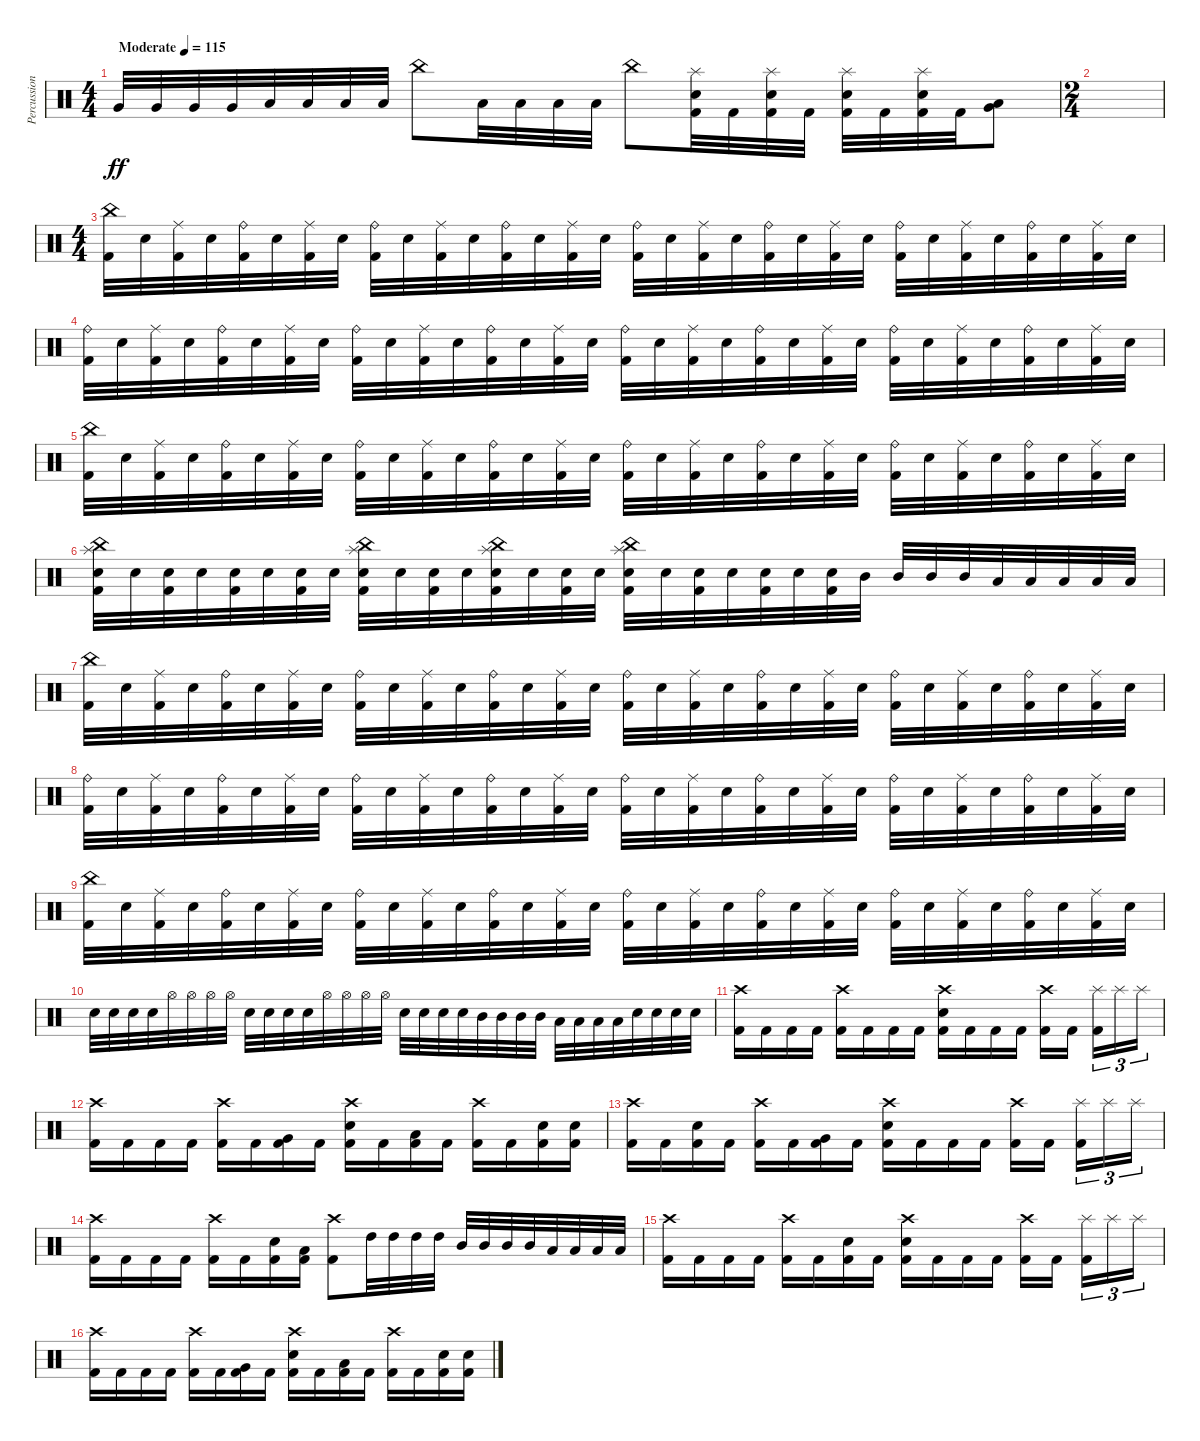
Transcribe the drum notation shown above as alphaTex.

\track ("Percussion" "Percussion") {instrument percussion}
\staff {score}
\articulation defaults
\ts (4 4)
\tempo (115 "Moderate")
\clef neutral
\ks c "Very Low Tom (hit)".32{dy ff} "Very Low Tom (hit)".32 "Very Low Tom (hit)".32 "Very Low Tom (hit)".32 "Low Floor Tom (hit)".32 "Low Floor Tom (hit)".32 "Low Floor Tom (hit)".32 "Low Floor Tom (hit)".32 "China (hit)".8 "Low Floor Tom (hit)".32 "Low Floor Tom (hit)".32 "Low Floor Tom (hit)".32 "Low Floor Tom (hit)".32 "China (hit)".8
("Splash (hit)" "Electric Snare (hit)" "Kick (hit) 2").32 "Kick (hit) 2".32 ("Splash (hit)" "Electric Snare (hit)" "Kick (hit) 2").32 "Kick (hit) 2".32 ("Splash (hit)" "Electric Snare (hit)" "Kick (hit) 2").32 "Kick (hit) 2".32 ("Splash (hit)" "Electric Snare (hit)" "Kick (hit) 2").32 "Kick (hit) 2".32 ("Low Floor Tom (hit)" "Very Low Tom (hit)").8 |
\ts (2 4)
|
\ts (4 4)
("China (hit)" "Kick (hit) 2").32 "Electric Snare (hit)".32 ("Ride (middle)" "Kick (hit) 2").32 "Electric Snare (hit)".32 ("Ride (bell)" "Kick (hit) 2").32 "Electric Snare (hit)".32 ("Ride (middle)" "Kick (hit) 2").32 "Electric Snare (hit)".32 ("Ride (bell)" "Kick (hit) 2").32 "Electric Snare (hit)".32 ("Ride (middle)" "Kick (hit) 2").32 "Electric Snare (hit)".32 ("Ride (bell)" "Kick (hit) 2").32 "Electric Snare (hit)".32 ("Ride (middle)" "Kick (hit) 2").32 "Electric Snare (hit)".32 ("Ride (bell)" "Kick (hit) 2").32 "Electric Snare (hit)".32 ("Ride (middle)" "Kick (hit) 2").32 "Electric Snare (hit)".32 ("Ride (bell)" "Kick (hit) 2").32 "Electric Snare (hit)".32 ("Ride (middle)" "Kick (hit) 2").32 "Electric Snare (hit)".32 ("Ride (bell)" "Kick (hit) 2").32 "Electric Snare (hit)".32 ("Ride (middle)" "Kick (hit) 2").32 "Electric Snare (hit)".32 ("Ride (bell)" "Kick (hit) 2").32 "Electric Snare (hit)".32 ("Ride (middle)" "Kick (hit) 2").32 "Electric Snare (hit)".32 |
("Ride (bell)" "Kick (hit) 2").32 "Electric Snare (hit)".32 ("Ride (middle)" "Kick (hit) 2").32 "Electric Snare (hit)".32 ("Ride (bell)" "Kick (hit) 2").32 "Electric Snare (hit)".32 ("Ride (middle)" "Kick (hit) 2").32 "Electric Snare (hit)".32 ("Ride (bell)" "Kick (hit) 2").32 "Electric Snare (hit)".32 ("Ride (middle)" "Kick (hit) 2").32 "Electric Snare (hit)".32 ("Ride (bell)" "Kick (hit) 2").32 "Electric Snare (hit)".32 ("Ride (middle)" "Kick (hit) 2").32 "Electric Snare (hit)".32 ("Ride (bell)" "Kick (hit) 2").32 "Electric Snare (hit)".32 ("Ride (middle)" "Kick (hit) 2").32 "Electric Snare (hit)".32 ("Ride (bell)" "Kick (hit) 2").32 "Electric Snare (hit)".32 ("Ride (middle)" "Kick (hit) 2").32 "Electric Snare (hit)".32 ("Ride (bell)" "Kick (hit) 2").32 "Electric Snare (hit)".32 ("Ride (middle)" "Kick (hit) 2").32 "Electric Snare (hit)".32 ("Ride (bell)" "Kick (hit) 2").32 "Electric Snare (hit)".32 ("Ride (middle)" "Kick (hit) 2").32 "Electric Snare (hit)".32 |
("China (hit)" "Kick (hit) 2").32 "Electric Snare (hit)".32 ("Ride (middle)" "Kick (hit) 2").32 "Electric Snare (hit)".32 ("Ride (bell)" "Kick (hit) 2").32 "Electric Snare (hit)".32 ("Ride (middle)" "Kick (hit) 2").32 "Electric Snare (hit)".32 ("Ride (bell)" "Kick (hit) 2").32 "Electric Snare (hit)".32 ("Ride (middle)" "Kick (hit) 2").32 "Electric Snare (hit)".32 ("Ride (bell)" "Kick (hit) 2").32 "Electric Snare (hit)".32 ("Ride (middle)" "Kick (hit) 2").32 "Electric Snare (hit)".32 ("Ride (bell)" "Kick (hit) 2").32 "Electric Snare (hit)".32 ("Ride (middle)" "Kick (hit) 2").32 "Electric Snare (hit)".32 ("Ride (bell)" "Kick (hit) 2").32 "Electric Snare (hit)".32 ("Ride (middle)" "Kick (hit) 2").32 "Electric Snare (hit)".32 ("Ride (bell)" "Kick (hit) 2").32 "Electric Snare (hit)".32 ("Ride (middle)" "Kick (hit) 2").32 "Electric Snare (hit)".32 ("Ride (bell)" "Kick (hit) 2").32 "Electric Snare (hit)".32 ("Ride (middle)" "Kick (hit) 2").32 "Electric Snare (hit)".32 |
("China (hit)" "Splash (hit)" "Electric Snare (hit)" "Kick (hit) 2").32 "Electric Snare (hit)".32 ("Electric Snare (hit)" "Kick (hit) 2").32 "Electric Snare (hit)".32 ("Electric Snare (hit)" "Kick (hit) 2").32 "Electric Snare (hit)".32 ("Electric Snare (hit)" "Kick (hit) 2").32 "Electric Snare (hit)".32 ("China (hit)" "Splash (hit)" "Electric Snare (hit)" "Kick (hit) 2").32 "Electric Snare (hit)".32 ("Electric Snare (hit)" "Kick (hit) 2").32 "Electric Snare (hit)".32 ("China (hit)" "Splash (hit)" "Electric Snare (hit)" "Kick (hit) 2").32 "Electric Snare (hit)".32 ("Electric Snare (hit)" "Kick (hit) 2").32 "Electric Snare (hit)".32 ("China (hit)" "Splash (hit)" "Electric Snare (hit)" "Kick (hit) 2").32 "Electric Snare (hit)".32 ("Electric Snare (hit)" "Kick (hit) 2").32 "Electric Snare (hit)".32 ("Electric Snare (hit)" "Kick (hit) 2").32 "Electric Snare (hit)".32 ("Electric Snare (hit)" "Kick (hit) 2").32 "Mid Tom (hit)".32 "Mid Tom (hit)".32 "Mid Tom (hit)".32 "Mid Tom (hit)".32 "Low Tom (hit)".32 "Low Tom (hit)".32 "Low Tom (hit)".32 "Low Tom (hit)".32 "Low Tom (hit)".32 |
("China (hit)" "Kick (hit) 2").32 "Electric Snare (hit)".32 ("Ride (middle)" "Kick (hit) 2").32 "Electric Snare (hit)".32 ("Ride (bell)" "Kick (hit) 2").32 "Electric Snare (hit)".32 ("Ride (middle)" "Kick (hit) 2").32 "Electric Snare (hit)".32 ("Ride (bell)" "Kick (hit) 2").32 "Electric Snare (hit)".32 ("Ride (middle)" "Kick (hit) 2").32 "Electric Snare (hit)".32 ("Ride (bell)" "Kick (hit) 2").32 "Electric Snare (hit)".32 ("Ride (middle)" "Kick (hit) 2").32 "Electric Snare (hit)".32 ("Ride (bell)" "Kick (hit) 2").32 "Electric Snare (hit)".32 ("Ride (middle)" "Kick (hit) 2").32 "Electric Snare (hit)".32 ("Ride (bell)" "Kick (hit) 2").32 "Electric Snare (hit)".32 ("Ride (middle)" "Kick (hit) 2").32 "Electric Snare (hit)".32 ("Ride (bell)" "Kick (hit) 2").32 "Electric Snare (hit)".32 ("Ride (middle)" "Kick (hit) 2").32 "Electric Snare (hit)".32 ("Ride (bell)" "Kick (hit) 2").32 "Electric Snare (hit)".32 ("Ride (middle)" "Kick (hit) 2").32 "Electric Snare (hit)".32 |
("Ride (bell)" "Kick (hit) 2").32 "Electric Snare (hit)".32 ("Ride (middle)" "Kick (hit) 2").32 "Electric Snare (hit)".32 ("Ride (bell)" "Kick (hit) 2").32 "Electric Snare (hit)".32 ("Ride (middle)" "Kick (hit) 2").32 "Electric Snare (hit)".32 ("Ride (bell)" "Kick (hit) 2").32 "Electric Snare (hit)".32 ("Ride (middle)" "Kick (hit) 2").32 "Electric Snare (hit)".32 ("Ride (bell)" "Kick (hit) 2").32 "Electric Snare (hit)".32 ("Ride (middle)" "Kick (hit) 2").32 "Electric Snare (hit)".32 ("Ride (bell)" "Kick (hit) 2").32 "Electric Snare (hit)".32 ("Ride (middle)" "Kick (hit) 2").32 "Electric Snare (hit)".32 ("Ride (bell)" "Kick (hit) 2").32 "Electric Snare (hit)".32 ("Ride (middle)" "Kick (hit) 2").32 "Electric Snare (hit)".32 ("Ride (bell)" "Kick (hit) 2").32 "Electric Snare (hit)".32 ("Ride (middle)" "Kick (hit) 2").32 "Electric Snare (hit)".32 ("Ride (bell)" "Kick (hit) 2").32 "Electric Snare (hit)".32 ("Ride (middle)" "Kick (hit) 2").32 "Electric Snare (hit)".32 |
("China (hit)" "Kick (hit) 2").32 "Electric Snare (hit)".32 ("Ride (middle)" "Kick (hit) 2").32 "Electric Snare (hit)".32 ("Ride (bell)" "Kick (hit) 2").32 "Electric Snare (hit)".32 ("Ride (middle)" "Kick (hit) 2").32 "Electric Snare (hit)".32 ("Ride (bell)" "Kick (hit) 2").32 "Electric Snare (hit)".32 ("Ride (middle)" "Kick (hit) 2").32 "Electric Snare (hit)".32 ("Ride (bell)" "Kick (hit) 2").32 "Electric Snare (hit)".32 ("Ride (middle)" "Kick (hit) 2").32 "Electric Snare (hit)".32 ("Ride (bell)" "Kick (hit) 2").32 "Electric Snare (hit)".32 ("Ride (middle)" "Kick (hit) 2").32 "Electric Snare (hit)".32 ("Ride (bell)" "Kick (hit) 2").32 "Electric Snare (hit)".32 ("Ride (middle)" "Kick (hit) 2").32 "Electric Snare (hit)".32 ("Ride (bell)" "Kick (hit) 2").32 "Electric Snare (hit)".32 ("Ride (middle)" "Kick (hit) 2").32 "Electric Snare (hit)".32 ("Ride (bell)" "Kick (hit) 2").32 "Electric Snare (hit)".32 ("Ride (middle)" "Kick (hit) 2").32 "Electric Snare (hit)".32 |
"Electric Snare (hit)".32 "Electric Snare (hit)".32 "Electric Snare (hit)".32 "Electric Snare (hit)".32 "Hi-Hat (open)".32 "Hi-Hat (open)".32 "Hi-Hat (open)".32 "Hi-Hat (open)".32 "Electric Snare (hit)".32 "Electric Snare (hit)".32 "Electric Snare (hit)".32 "Electric Snare (hit)".32 "Hi-Hat (open)".32 "Hi-Hat (open)".32 "Hi-Hat (open)".32 "Hi-Hat (open)".32 "Electric Snare (hit)".32 "Electric Snare (hit)".32 "Electric Snare (hit)".32 "Electric Snare (hit)".32 "Mid Tom (hit)".32 "Mid Tom (hit)".32 "Mid Tom (hit)".32 "Mid Tom (hit)".32 "Low Tom (hit)".32 "Low Tom (hit)".32 "Low Tom (hit)".32 "Low Tom (hit)".32 "Electric Snare (hit)".32 "Electric Snare (hit)".32 "Electric Snare (hit)".32 "Electric Snare (hit)".32 |
("Crash high (hit)" "Kick (hit) 2").16 "Kick (hit) 2".16 "Kick (hit) 2".16 "Kick (hit) 2".16 ("Crash high (hit)" "Kick (hit) 2").16 "Kick (hit) 2".16 "Kick (hit) 2".16 "Kick (hit) 2".16 ("Crash high (hit)" "Electric Snare (hit)" "Kick (hit) 2").16 "Kick (hit) 2".16 "Kick (hit) 2".16 "Kick (hit) 2".16 ("Crash high (hit)" "Kick (hit) 2").16 "Kick (hit) 2".16{beam splitsecondary} ("Splash (hit)" "Kick (hit) 2").16{tu (3 2)} "Splash (hit)".16{tu (3 2)} "Splash (hit)".16{tu (3 2)} |
("Crash high (hit)" "Kick (hit) 2").16 "Kick (hit) 2".16 "Kick (hit) 2".16 "Kick (hit) 2".16 ("Crash high (hit)" "Kick (hit) 2").16 "Kick (hit) 2".16 ("Very Low Tom (hit)" "Kick (hit) 2").16 "Kick (hit) 2".16 ("Crash high (hit)" "Electric Snare (hit)" "Kick (hit) 2").16 "Kick (hit) 2".16 ("Low Tom (hit)" "Kick (hit) 2").16 "Kick (hit) 2".16 ("Crash high (hit)" "Kick (hit) 2").16 "Kick (hit) 2".16 ("Electric Snare (hit)" "Kick (hit) 2").16 ("Electric Snare (hit)" "Kick (hit) 2").16 |
("Crash high (hit)" "Kick (hit) 2").16 "Kick (hit) 2".16 ("Electric Snare (hit)" "Kick (hit) 2").16 "Kick (hit) 2".16 ("Crash high (hit)" "Kick (hit) 2").16 "Kick (hit) 2".16 ("Very Low Tom (hit)" "Kick (hit) 2").16 "Kick (hit) 2".16 ("Crash high (hit)" "Electric Snare (hit)" "Kick (hit) 2").16 "Kick (hit) 2".16 "Kick (hit) 2".16 "Kick (hit) 2".16 ("Crash high (hit)" "Kick (hit) 2").16 "Kick (hit) 2".16{beam splitsecondary} ("Splash (hit)" "Kick (hit) 2").16{tu (3 2)} "Splash (hit)".16{tu (3 2)} "Splash (hit)".16{tu (3 2)} |
("Crash high (hit)" "Kick (hit) 2").16 "Kick (hit) 2".16 "Kick (hit) 2".16 "Kick (hit) 2".16 ("Crash high (hit)" "Kick (hit) 2").16 "Kick (hit) 2".16 ("Electric Snare (hit)" "Kick (hit) 2").16 ("Low Tom (hit)" "Kick (hit) 2").16 ("Crash high (hit)" "Kick (hit) 2").8 "High Tom (hit)".32 "High Tom (hit)".32 "High Tom (hit)".32 "High Tom (hit)".32 "Mid Tom (hit)".32 "Mid Tom (hit)".32 "Mid Tom (hit)".32 "Mid Tom (hit)".32 "Low Tom (hit)".32 "Low Tom (hit)".32 "Low Tom (hit)".32 "Low Tom (hit)".32 |
("Crash high (hit)" "Kick (hit) 2").16 "Kick (hit) 2".16 "Kick (hit) 2".16 "Kick (hit) 2".16 ("Crash high (hit)" "Kick (hit) 2").16 "Kick (hit) 2".16 ("Electric Snare (hit)" "Kick (hit) 2").16 "Kick (hit) 2".16 ("Crash high (hit)" "Electric Snare (hit)" "Kick (hit) 2").16 "Kick (hit) 2".16 "Kick (hit) 2".16 "Kick (hit) 2".16 ("Crash high (hit)" "Kick (hit) 2").16 "Kick (hit) 2".16{beam splitsecondary} ("Splash (hit)" "Kick (hit) 2").16{tu (3 2)} "Splash (hit)".16{tu (3 2)} "Splash (hit)".16{tu (3 2)} |
("Crash high (hit)" "Kick (hit) 2").16 "Kick (hit) 2".16 "Kick (hit) 2".16 "Kick (hit) 2".16 ("Crash high (hit)" "Kick (hit) 2").16 "Kick (hit) 2".16 ("Very Low Tom (hit)" "Kick (hit) 2").16 "Kick (hit) 2".16 ("Crash high (hit)" "Electric Snare (hit)" "Kick (hit) 2").16 "Kick (hit) 2".16 ("Low Tom (hit)" "Kick (hit) 2").16 "Kick (hit) 2".16 ("Crash high (hit)" "Kick (hit) 2").16 "Kick (hit) 2".16 ("Electric Snare (hit)" "Kick (hit) 2").16 ("Electric Snare (hit)" "Kick (hit) 2").16
